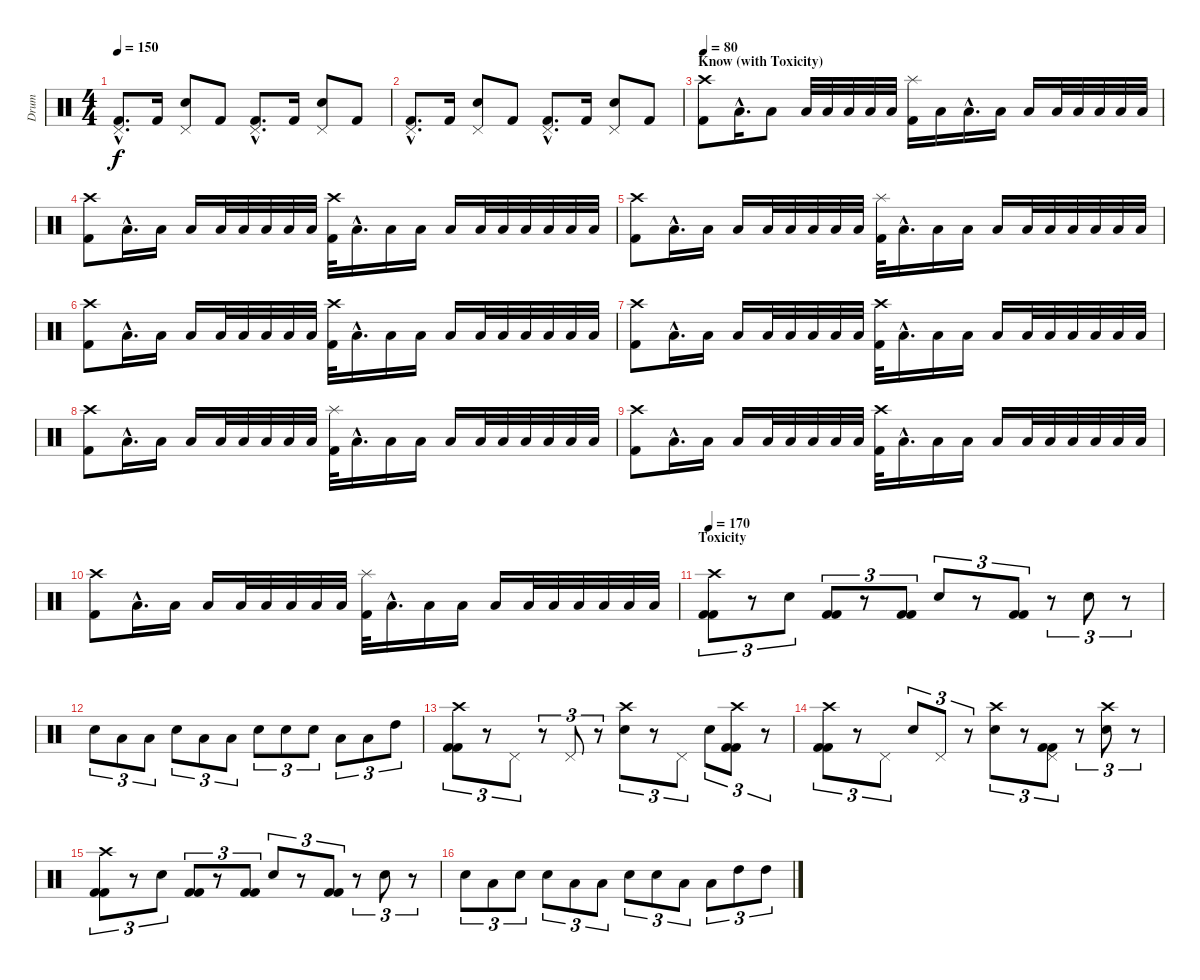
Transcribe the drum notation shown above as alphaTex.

\track ("Drum" "Drum") {instrument percussion}
\staff {score}
\articulation defaults
\ts (4 4)
\tempo 150
\clef neutral
\ks c
("Kick (hit) 2"{hac} "Pedal Hi-Hat (hit)"{hac}).8{d dy f} "Kick (hit) 2".16 ("Electric Snare (hit)" "Pedal Hi-Hat (hit)").8 "Kick (hit) 2".8 ("Kick (hit) 2"{hac} "Pedal Hi-Hat (hit)"{hac}).8{d} "Kick (hit) 2".16 ("Electric Snare (hit)" "Pedal Hi-Hat (hit)").8 "Kick (hit) 2".8 |
("Kick (hit) 2"{hac} "Pedal Hi-Hat (hit)"{hac}).8{d} "Kick (hit) 2".16 ("Electric Snare (hit)" "Pedal Hi-Hat (hit)").8 "Kick (hit) 2".8 ("Kick (hit) 2"{hac} "Pedal Hi-Hat (hit)"{hac}).8{d} "Kick (hit) 2".16 ("Electric Snare (hit)" "Pedal Hi-Hat (hit)").8 "Kick (hit) 2".8 |
\section ("" "Know (with Toxicity)")
\tempo 80
("Kick (hit) 2" "Crash high (hit)").8 "Low Tom (hit)"{hac}.16{d} "Low Tom (hit)".8 "Low Tom (hit)".32 "Low Tom (hit)".32 "Low Tom (hit)".32 "Low Tom (hit)".32 "Low Tom (hit)".32 ("Kick (hit) 2" "Splash (hit)").16 "Low Tom (hit)".16 "Low Tom (hit)"{hac}.16{d} "Low Tom (hit)".16 "Low Tom (hit)".16 "Low Tom (hit)".32 "Low Tom (hit)".32 "Low Tom (hit)".32 "Low Tom (hit)".32 "Low Tom (hit)".32 |
("Kick (hit) 2" "Crash high (hit)").8 "Low Tom (hit)"{hac}.16{d} "Low Tom (hit)".16 "Low Tom (hit)".16 "Low Tom (hit)".32 "Low Tom (hit)".32 "Low Tom (hit)".32 "Low Tom (hit)".32 "Low Tom (hit)".32 ("Kick (hit) 2" "Crash high (hit)").32 "Low Tom (hit)"{hac}.16{d} "Low Tom (hit)".16 "Low Tom (hit)".16 "Low Tom (hit)".16 "Low Tom (hit)".32 "Low Tom (hit)".32 "Low Tom (hit)".32 "Low Tom (hit)".32 "Low Tom (hit)".32 "Low Tom (hit)".32 |
("Kick (hit) 2" "Crash high (hit)").8 "Low Tom (hit)"{hac}.16{d} "Low Tom (hit)".16 "Low Tom (hit)".16 "Low Tom (hit)".32 "Low Tom (hit)".32 "Low Tom (hit)".32 "Low Tom (hit)".32 "Low Tom (hit)".32 ("Kick (hit) 2" "Splash (hit)").32 "Low Tom (hit)"{hac}.16{d} "Low Tom (hit)".16 "Low Tom (hit)".16 "Low Tom (hit)".16 "Low Tom (hit)".32 "Low Tom (hit)".32 "Low Tom (hit)".32 "Low Tom (hit)".32 "Low Tom (hit)".32 "Low Tom (hit)".32 |
("Kick (hit) 2" "Crash high (hit)").8 "Low Tom (hit)"{hac}.16{d} "Low Tom (hit)".16 "Low Tom (hit)".16 "Low Tom (hit)".32 "Low Tom (hit)".32 "Low Tom (hit)".32 "Low Tom (hit)".32 "Low Tom (hit)".32 ("Kick (hit) 2" "Crash high (hit)").32 "Low Tom (hit)"{hac}.16{d} "Low Tom (hit)".16 "Low Tom (hit)".16 "Low Tom (hit)".16 "Low Tom (hit)".32 "Low Tom (hit)".32 "Low Tom (hit)".32 "Low Tom (hit)".32 "Low Tom (hit)".32 "Low Tom (hit)".32 |
("Kick (hit) 2" "Crash high (hit)").8 "Low Tom (hit)"{hac}.16{d} "Low Tom (hit)".16 "Low Tom (hit)".16 "Low Tom (hit)".32 "Low Tom (hit)".32 "Low Tom (hit)".32 "Low Tom (hit)".32 "Low Tom (hit)".32 ("Kick (hit) 2" "Crash high (hit)").32 "Low Tom (hit)"{hac}.16{d} "Low Tom (hit)".16 "Low Tom (hit)".16 "Low Tom (hit)".16 "Low Tom (hit)".32 "Low Tom (hit)".32 "Low Tom (hit)".32 "Low Tom (hit)".32 "Low Tom (hit)".32 "Low Tom (hit)".32 |
("Kick (hit) 2" "Crash high (hit)").8 "Low Tom (hit)"{hac}.16{d} "Low Tom (hit)".16 "Low Tom (hit)".16 "Low Tom (hit)".32 "Low Tom (hit)".32 "Low Tom (hit)".32 "Low Tom (hit)".32 "Low Tom (hit)".32 ("Kick (hit) 2" "Splash (hit)").32 "Low Tom (hit)"{hac}.16{d} "Low Tom (hit)".16 "Low Tom (hit)".16 "Low Tom (hit)".16 "Low Tom (hit)".32 "Low Tom (hit)".32 "Low Tom (hit)".32 "Low Tom (hit)".32 "Low Tom (hit)".32 "Low Tom (hit)".32 |
("Kick (hit) 2" "Crash high (hit)").8 "Low Tom (hit)"{hac}.16{d} "Low Tom (hit)".16 "Low Tom (hit)".16 "Low Tom (hit)".32 "Low Tom (hit)".32 "Low Tom (hit)".32 "Low Tom (hit)".32 "Low Tom (hit)".32 ("Kick (hit) 2" "Crash high (hit)").32 "Low Tom (hit)"{hac}.16{d} "Low Tom (hit)".16 "Low Tom (hit)".16 "Low Tom (hit)".16 "Low Tom (hit)".32 "Low Tom (hit)".32 "Low Tom (hit)".32 "Low Tom (hit)".32 "Low Tom (hit)".32 "Low Tom (hit)".32 |
("Kick (hit) 2" "Crash high (hit)").8 "Low Tom (hit)"{hac}.16{d} "Low Tom (hit)".16 "Low Tom (hit)".16 "Low Tom (hit)".32 "Low Tom (hit)".32 "Low Tom (hit)".32 "Low Tom (hit)".32 "Low Tom (hit)".32 ("Kick (hit) 2" "Splash (hit)").32 "Low Tom (hit)"{hac}.16{d} "Low Tom (hit)".16 "Low Tom (hit)".16 "Low Tom (hit)".16 "Low Tom (hit)".32 "Low Tom (hit)".32 "Low Tom (hit)".32 "Low Tom (hit)".32 "Low Tom (hit)".32 "Low Tom (hit)".32 |
\section ("" "Toxicity")
\tempo 170
("Crash high (hit)" "Kick (hit) 2" "Kick (hit) 2").8{tu (3 2)} r.8{tu (3 2)} "Snare (hit) 2".8{tu (3 2)} ("Kick (hit) 2" "Kick (hit) 2").8{tu (3 2)} r.8{tu (3 2)} ("Kick (hit) 2" "Kick (hit) 2").8{tu (3 2)} "Snare (hit) 2".8{tu (3 2)} r.8{tu (3 2)} ("Kick (hit) 2" "Kick (hit) 2").8{tu (3 2)} r.8{tu (3 2)} "Snare (hit) 2".8{tu (3 2)} r.8{tu (3 2)} |
"Snare (hit) 2".8{tu (3 2)} "Low Tom (hit)".8{tu (3 2)} "Low Tom (hit)".8{tu (3 2)} "Snare (hit) 2".8{tu (3 2)} "Low Tom (hit)".8{tu (3 2)} "Low Tom (hit)".8{tu (3 2)} "Snare (hit) 2".8{tu (3 2)} "Snare (hit) 2".8{tu (3 2)} "Snare (hit) 2".8{tu (3 2)} "Low Tom (hit)".8{tu (3 2)} "Low Tom (hit)".8{tu (3 2)} "High Tom (hit)".8{tu (3 2)} |
("Crash high (hit)" "Kick (hit) 2" "Kick (hit) 2").8{tu (3 2)} r.8{tu (3 2)} "Pedal Hi-Hat (hit)".8{tu (3 2)} r.8{tu (3 2)} "Pedal Hi-Hat (hit)".8{tu (3 2)} r.8{tu (3 2)} ("Crash high (hit)" "Snare (hit) 2").8{tu (3 2)} r.8{tu (3 2)} "Pedal Hi-Hat (hit)".8{tu (3 2)} "Snare (hit) 2".8{tu (3 2)} ("Crash high (hit)" "Kick (hit) 2" "Kick (hit) 2").8{tu (3 2)} r.8{tu (3 2)} |
("Crash high (hit)" "Kick (hit) 2" "Kick (hit) 2").8{tu (3 2)} r.8{tu (3 2)} "Pedal Hi-Hat (hit)".8{tu (3 2)} "Snare (hit) 2".8{tu (3 2)} "Pedal Hi-Hat (hit)".8{tu (3 2)} r.8{tu (3 2)} ("Crash high (hit)" "Snare (hit) 2").8{tu (3 2)} r.8{tu (3 2)} ("Pedal Hi-Hat (hit)" "Kick (hit) 2" "Kick (hit) 2").8{tu (3 2)} r.8{tu (3 2)} ("Crash high (hit)" "Snare (hit) 2").8{tu (3 2)} r.8{tu (3 2)} |
("Crash high (hit)" "Kick (hit) 2" "Kick (hit) 2").8{tu (3 2)} r.8{tu (3 2)} "Snare (hit) 2".8{tu (3 2)} ("Kick (hit) 2" "Kick (hit) 2").8{tu (3 2)} r.8{tu (3 2)} ("Kick (hit) 2" "Kick (hit) 2").8{tu (3 2)} "Snare (hit) 2".8{tu (3 2)} r.8{tu (3 2)} ("Kick (hit) 2" "Kick (hit) 2").8{tu (3 2)} r.8{tu (3 2)} "Snare (hit) 2".8{tu (3 2)} r.8{tu (3 2)} |
"Snare (hit) 2".8{tu (3 2)} "Low Tom (hit)".8{tu (3 2)} "Snare (hit) 2".8{tu (3 2)} "Snare (hit) 2".8{tu (3 2)} "Low Tom (hit)".8{tu (3 2)} "Low Tom (hit)".8{tu (3 2)} "Snare (hit) 2".8{tu (3 2)} "Snare (hit) 2".8{tu (3 2)} "Low Tom (hit)".8{tu (3 2)} "Low Tom (hit)".8{tu (3 2)} "High Tom (hit)".8{tu (3 2)} "High Tom (hit)".8{tu (3 2)}
